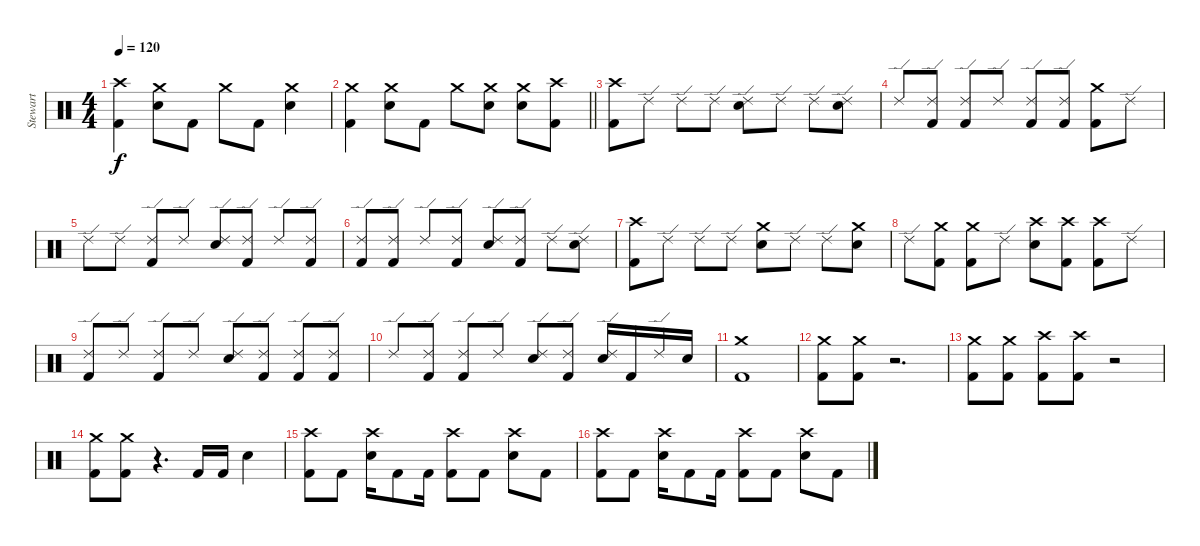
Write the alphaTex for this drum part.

\track ("Stewart" "Stewart") {instrument percussion}
\staff {score}
\articulation defaults
\ts (4 4)
\tempo 120
\clef neutral
\ks c
("Crash high (hit)" "Kick (hit) 2").4{dy f} ("Crash medium (hit)" "Electric Snare (hit)").8 "Kick (hit) 2".8 "Crash medium (hit)".8 "Kick (hit) 2".8 ("Crash medium (hit)" "Electric Snare (hit)").4 |
\barLineRight lightlight
("Crash medium (hit)" "Kick (hit) 2").4 ("Crash medium (hit)" "Electric Snare (hit)").8 "Kick (hit) 2".8 "Crash medium (hit)".8 ("Crash medium (hit)" "Electric Snare (hit)").8 ("Crash medium (hit)" "Electric Snare (hit)").8 ("Crash high (hit)" "Kick (hit) 2").8 |
("Crash high (hit)" "Kick (hit) 2").8 "Ride (edge) 2".8 "Ride (edge) 2".8 "Ride (edge) 2".8 ("Ride (edge) 2" "Electric Snare (hit)").8 "Ride (edge) 2".8 "Ride (edge) 2".8 ("Ride (edge) 2" "Electric Snare (hit)").8 |
"Ride (edge) 2".8 ("Ride (edge) 2" "Kick (hit) 2").8 ("Ride (edge) 2" "Kick (hit) 2").8 "Ride (edge) 2".8 ("Ride (edge) 2" "Kick (hit) 2").8 ("Ride (edge) 2" "Kick (hit) 2").8 ("Crash medium (hit)" "Kick (hit) 2").8 "Ride (edge) 2".8 |
"Ride (edge) 2".8 "Ride (edge) 2".8 ("Ride (edge) 2" "Kick (hit) 2").8 "Ride (edge) 2".8 ("Ride (edge) 2" "Electric Snare (hit)").8 ("Ride (edge) 2" "Kick (hit) 2").8 "Ride (edge) 2".8 ("Ride (edge) 2" "Kick (hit) 2").8 |
("Ride (edge) 2" "Kick (hit) 2").8 ("Ride (edge) 2" "Kick (hit) 2").8 "Ride (edge) 2".8 ("Ride (edge) 2" "Kick (hit) 2").8 ("Ride (edge) 2" "Electric Snare (hit)").8 ("Ride (edge) 2" "Kick (hit) 2").8 "Ride (edge) 2".8 ("Ride (edge) 2" "Electric Snare (hit)").8 |
("Crash high (hit)" "Kick (hit) 2").8 "Ride (edge) 2".8 "Ride (edge) 2".8 "Ride (edge) 2".8 ("Crash medium (hit)" "Electric Snare (hit)").8 "Ride (edge) 2".8 "Ride (edge) 2".8 ("Crash medium (hit)" "Electric Snare (hit)").8 |
"Ride (edge) 2".8 ("Crash medium (hit)" "Kick (hit) 2").8 ("Crash medium (hit)" "Kick (hit) 2").8 "Ride (edge) 2".8 ("Crash high (hit)" "Electric Snare (hit)").8 ("Crash high (hit)" "Kick (hit) 2").8 ("Crash high (hit)" "Kick (hit) 2").8 "Ride (edge) 2".8 |
("Ride (edge) 2" "Kick (hit) 2").8 "Ride (edge) 2".8 ("Ride (edge) 2" "Kick (hit) 2").8 "Ride (edge) 2".8 ("Ride (edge) 2" "Electric Snare (hit)").8 ("Ride (edge) 2" "Kick (hit) 2").8 ("Ride (edge) 2" "Kick (hit) 2").8 ("Ride (edge) 2" "Kick (hit) 2").8 |
"Ride (edge) 2".8 ("Ride (edge) 2" "Kick (hit) 2").8 ("Ride (edge) 2" "Kick (hit) 2").8 "Ride (edge) 2".8 ("Ride (edge) 2" "Electric Snare (hit)").8 ("Ride (edge) 2" "Kick (hit) 2").8 ("Ride (edge) 2" "Electric Snare (hit)").16 "Kick (hit) 2".16 "Ride (edge) 2".16 "Electric Snare (hit)".16 |
("Crash medium (hit)" "Kick (hit) 2").1 |
("Crash medium (hit)" "Kick (hit) 2").8 ("Crash medium (hit)" "Kick (hit) 2").8 r.2{d} |
("Crash medium (hit)" "Kick (hit) 2").8 ("Crash medium (hit)" "Kick (hit) 2").8 ("Crash high (hit)" "Kick (hit) 2").8 ("Crash high (hit)" "Kick (hit) 2").8 r.2 |
("Crash medium (hit)" "Kick (hit) 2").8 ("Crash medium (hit)" "Kick (hit) 2").8 r.4{d} "Kick (hit) 2".16 "Kick (hit) 2".16 "Electric Snare (hit)".4 |
("Kick (hit) 2" "Crash high (hit)").8 "Kick (hit) 2".8 ("Electric Snare (hit)" "Crash high (hit)").16 "Kick (hit) 2".8 "Kick (hit) 2".16 ("Kick (hit) 2" "Crash high (hit)").8 "Kick (hit) 2".8 ("Electric Snare (hit)" "Crash high (hit)").8 "Kick (hit) 2".8 |
("Kick (hit) 2" "Crash high (hit)").8 "Kick (hit) 2".8 ("Electric Snare (hit)" "Crash high (hit)").16 "Kick (hit) 2".8 "Kick (hit) 2".16 ("Kick (hit) 2" "Crash high (hit)").8 "Kick (hit) 2".8 ("Electric Snare (hit)" "Crash high (hit)").8 "Kick (hit) 2".8
